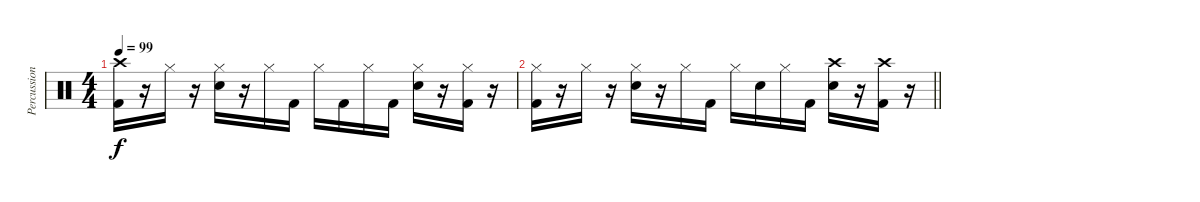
\track ("Percussion" "Percussion") {instrument percussion}
\staff {score}
\articulation defaults
\ts (4 4)
\tempo 99
\clef neutral
\ks c
("Crash high (hit)" "Kick (hit) 2").16{dy f} r.16 "Hi-Hat (closed)".16 r.16 ("Hi-Hat (closed)" "Snare (hit) 2").16 r.16 "Hi-Hat (closed)".16 "Kick (hit) 2".16 "Hi-Hat (closed)".16 "Kick (hit) 2".16 "Hi-Hat (closed)".16 "Kick (hit) 2".16 ("Hi-Hat (closed)" "Snare (hit) 2").16 r.16 ("Hi-Hat (closed)" "Kick (hit) 2").16 r.16 |
\barLineRight lightlight
("Hi-Hat (closed)" "Kick (hit) 2").16 r.16 "Hi-Hat (closed)".16 r.16 ("Hi-Hat (closed)" "Snare (hit) 2").16 r.16 "Hi-Hat (closed)".16 "Kick (hit) 2".16 "Hi-Hat (closed)".16 "Snare (hit) 2".16 "Hi-Hat (closed)".16 "Kick (hit) 2".16 ("Crash high (hit)" "Snare (hit) 2").16 r.16 ("Crash high (hit)" "Kick (hit) 2").16 r.16
